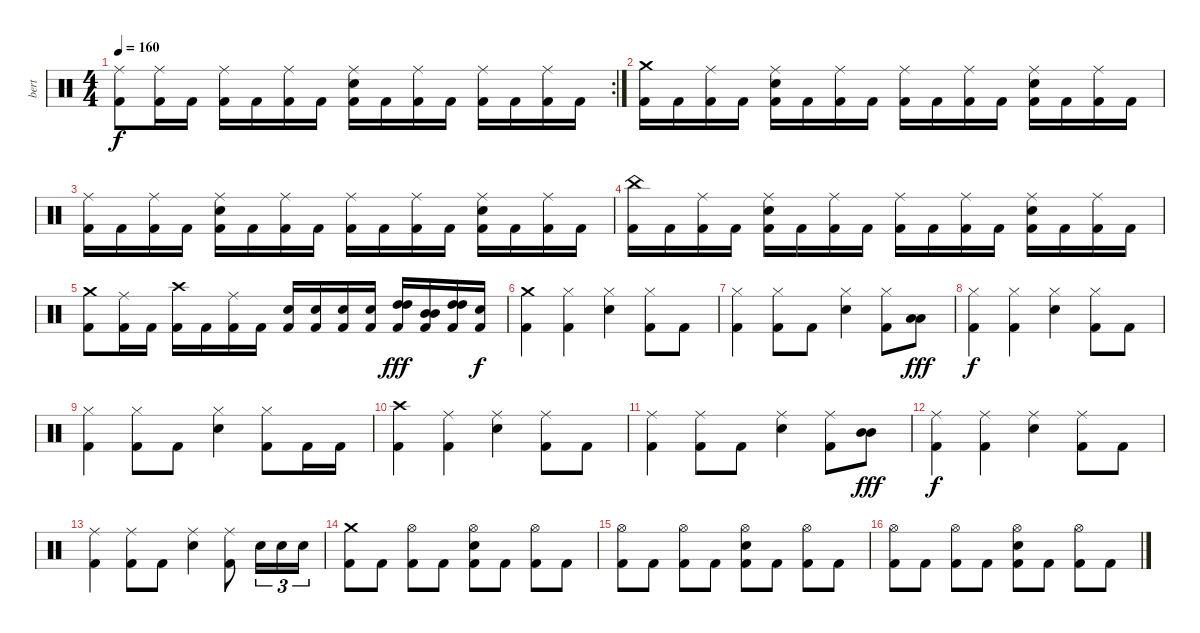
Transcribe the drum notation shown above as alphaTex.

\track ("bert" "bert") {instrument percussion}
\staff {score}
\articulation defaults
\rc 2
\ts (4 4)
\tempo 160
\clef neutral
\ks c
("Ride (middle)" "Kick (hit) 2").8{dy f} ("Ride (middle)" "Kick (hit) 2").16 "Kick (hit) 2".16 ("Ride (middle)" "Kick (hit) 2").16 "Kick (hit) 2".16 ("Ride (middle)" "Kick (hit) 2").16 "Kick (hit) 2".16 ("Ride (middle)" "Snare (hit) 2" "Kick (hit) 2").16 "Kick (hit) 2".16 ("Ride (middle)" "Kick (hit) 2").16 "Kick (hit) 2".16 ("Ride (middle)" "Kick (hit) 2").16 "Kick (hit) 2".16 ("Ride (middle)" "Kick (hit) 2").16 "Kick (hit) 2".16 |
("Crash medium (hit)" "Kick (hit) 2").16 "Kick (hit) 2".16 ("Ride (middle)" "Kick (hit) 2").16 "Kick (hit) 2".16 ("Ride (middle)" "Snare (hit) 2" "Kick (hit) 2").16 "Kick (hit) 2".16 ("Ride (middle)" "Kick (hit) 2").16 "Kick (hit) 2".16 ("Ride (middle)" "Kick (hit) 2").16 "Kick (hit) 2".16 ("Ride (middle)" "Kick (hit) 2").16 "Kick (hit) 2".16 ("Ride (middle)" "Snare (hit) 2" "Kick (hit) 2").16 "Kick (hit) 2".16 ("Ride (middle)" "Kick (hit) 2").16 "Kick (hit) 2".16 |
("Ride (middle)" "Kick (hit) 2").16 "Kick (hit) 2".16 ("Ride (middle)" "Kick (hit) 2").16 "Kick (hit) 2".16 ("Ride (middle)" "Snare (hit) 2" "Kick (hit) 2").16 "Kick (hit) 2".16 ("Ride (middle)" "Kick (hit) 2").16 "Kick (hit) 2".16 ("Ride (middle)" "Kick (hit) 2").16 "Kick (hit) 2".16 ("Ride (middle)" "Kick (hit) 2").16 "Kick (hit) 2".16 ("Ride (middle)" "Snare (hit) 2" "Kick (hit) 2").16 "Kick (hit) 2".16 ("Ride (middle)" "Kick (hit) 2").16 "Kick (hit) 2".16 |
("China (hit)" "Kick (hit) 2").16 "Kick (hit) 2".16 ("Ride (middle)" "Kick (hit) 2").16 "Kick (hit) 2".16 ("Ride (middle)" "Snare (hit) 2" "Kick (hit) 2").16 "Kick (hit) 2".16 ("Ride (middle)" "Kick (hit) 2").16 "Kick (hit) 2".16 ("Ride (middle)" "Kick (hit) 2").16 "Kick (hit) 2".16 ("Ride (middle)" "Kick (hit) 2").16 "Kick (hit) 2".16 ("Ride (middle)" "Snare (hit) 2" "Kick (hit) 2").16 "Kick (hit) 2".16 ("Ride (middle)" "Kick (hit) 2").16 "Kick (hit) 2".16 |
("Crash medium (hit)" "Kick (hit) 2").8 ("Ride (middle)" "Kick (hit) 2").16 "Kick (hit) 2".16 ("Crash high (hit)" "Kick (hit) 2").16 "Kick (hit) 2".16 ("Ride (middle)" "Kick (hit) 2").16 "Kick (hit) 2".16 ("Snare (hit) 2" "Kick (hit) 2").16 ("Snare (hit) 2" "Kick (hit) 2").16 ("Snare (hit) 2" "Kick (hit) 2").16 ("Snare (hit) 2" "Kick (hit) 2").16 ("High Tom (hit)" "High Tom (hit)" "Kick (hit) 2").16{dy fff} ("Mid Tom (hit)" "Mid Tom (hit)" "Kick (hit) 2").16 ("High Tom (hit)" "High Tom (hit)" "Kick (hit) 2").16 ("Snare (hit) 2" "Kick (hit) 2").16{dy f} |
("Crash medium (hit)" "Kick (hit) 2").4 ("Hi-Hat (closed)" "Kick (hit) 2").4 ("Hi-Hat (closed)" "Snare (hit) 2").4 ("Hi-Hat (closed)" "Kick (hit) 2").8 "Kick (hit) 2".8 |
("Hi-Hat (closed)" "Kick (hit) 2").4 ("Hi-Hat (closed)" "Kick (hit) 2").8 "Kick (hit) 2".8 ("Hi-Hat (closed)" "Snare (hit) 2").4 ("Hi-Hat (closed)" "Kick (hit) 2").8 ("Low Tom (hit)" "Low Tom (hit)").8{dy fff} |
("Hi-Hat (closed)" "Kick (hit) 2").4{dy f} ("Hi-Hat (closed)" "Kick (hit) 2").4 ("Hi-Hat (closed)" "Snare (hit) 2").4 ("Hi-Hat (closed)" "Kick (hit) 2").8 "Kick (hit) 2".8 |
("Hi-Hat (closed)" "Kick (hit) 2").4 ("Hi-Hat (closed)" "Kick (hit) 2").8 "Kick (hit) 2".8 ("Hi-Hat (closed)" "Snare (hit) 2").4 ("Hi-Hat (closed)" "Kick (hit) 2").8 "Kick (hit) 2".16 "Kick (hit) 2".16 |
("Crash high (hit)" "Kick (hit) 2").4 ("Ride (middle)" "Kick (hit) 2").4 ("Ride (middle)" "Snare (hit) 2").4 ("Ride (middle)" "Kick (hit) 2").8 "Kick (hit) 2".8 |
("Ride (middle)" "Kick (hit) 2").4 ("Ride (middle)" "Kick (hit) 2").8 "Kick (hit) 2".8 ("Ride (middle)" "Snare (hit) 2").4 ("Ride (middle)" "Kick (hit) 2").8 ("Mid Tom (hit)" "Mid Tom (hit)").8{dy fff} |
("Ride (middle)" "Kick (hit) 2").4{dy f} ("Ride (middle)" "Kick (hit) 2").4 ("Ride (middle)" "Snare (hit) 2").4 ("Ride (middle)" "Kick (hit) 2").8 "Kick (hit) 2".8 |
("Ride (middle)" "Kick (hit) 2").4 ("Ride (middle)" "Kick (hit) 2").8 "Kick (hit) 2".8 ("Ride (middle)" "Snare (hit) 2").4 ("Ride (middle)" "Kick (hit) 2").8 "Snare (hit) 2".16{tu (3 2)} "Snare (hit) 2".16{tu (3 2)} "Snare (hit) 2".16{tu (3 2)} |
("Crash medium (hit)" "Kick (hit) 2").8 "Kick (hit) 2".8 ("Hi-Hat (open)" "Kick (hit) 2").8 "Kick (hit) 2".8 ("Hi-Hat (open)" "Snare (hit) 2" "Kick (hit) 2").8 "Kick (hit) 2".8 ("Hi-Hat (open)" "Kick (hit) 2").8 "Kick (hit) 2".8 |
("Hi-Hat (open)" "Kick (hit) 2").8 "Kick (hit) 2".8 ("Hi-Hat (open)" "Kick (hit) 2").8 "Kick (hit) 2".8 ("Hi-Hat (open)" "Snare (hit) 2" "Kick (hit) 2").8 "Kick (hit) 2".8 ("Hi-Hat (open)" "Kick (hit) 2").8 "Kick (hit) 2".8 |
("Hi-Hat (open)" "Kick (hit) 2").8 "Kick (hit) 2".8 ("Hi-Hat (open)" "Kick (hit) 2").8 "Kick (hit) 2".8 ("Hi-Hat (open)" "Snare (hit) 2" "Kick (hit) 2").8 "Kick (hit) 2".8 ("Hi-Hat (open)" "Kick (hit) 2").8 "Kick (hit) 2".8
